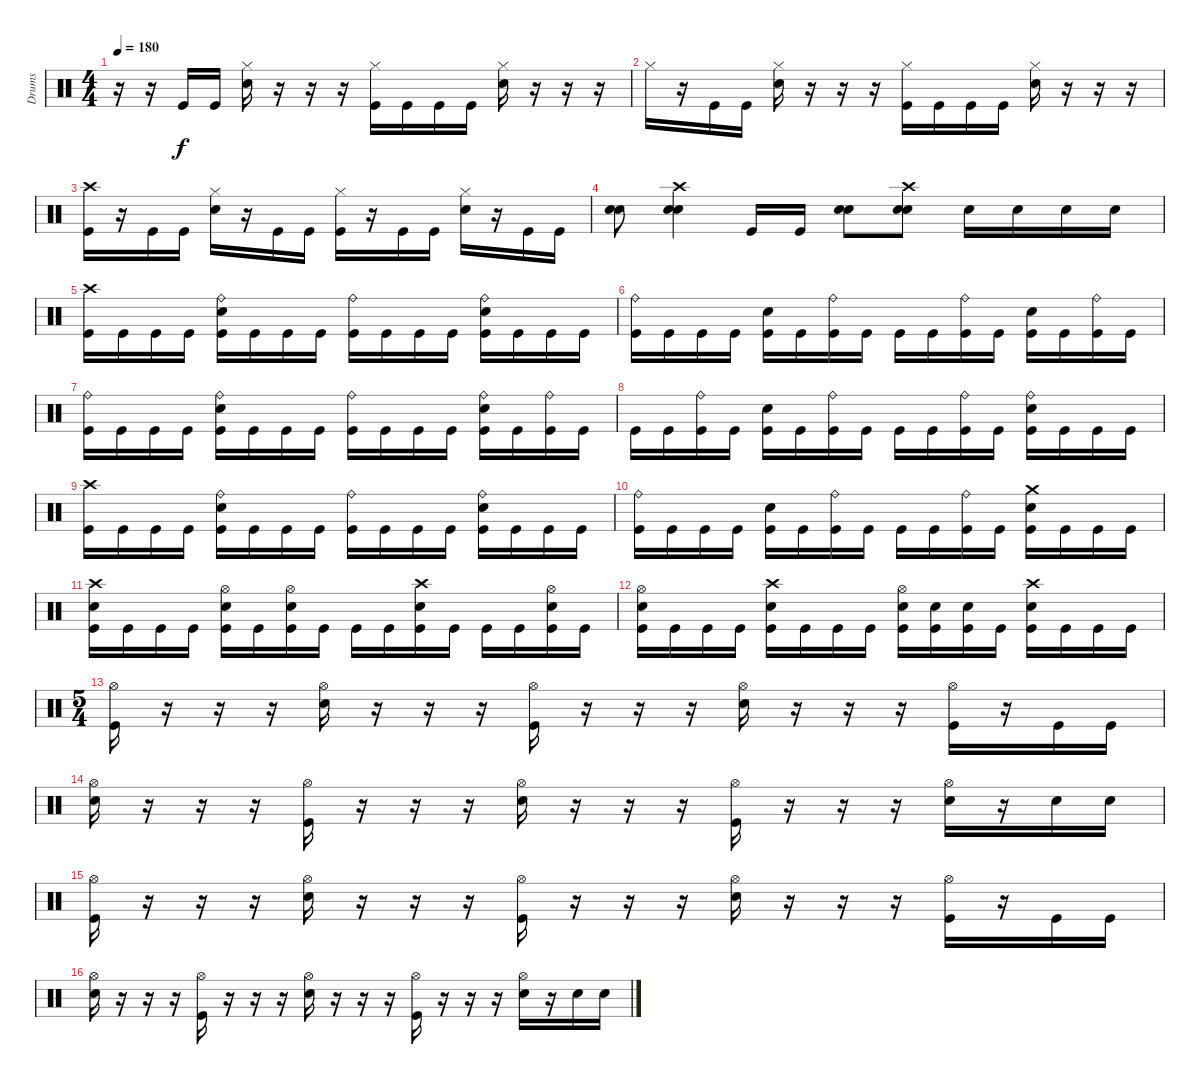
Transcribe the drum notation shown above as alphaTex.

\track ("Drums" "Drums") {instrument percussion}
\staff {score}
\articulation defaults
\ts (4 4)
\tempo 180
\clef neutral
\ks c
r.16{dy f} r.16 "Kick (hit)".16 "Kick (hit)".16 ("Hi-Hat (closed)" "Snare (hit) 2").16 r.16 r.16 r.16 ("Hi-Hat (closed)" "Kick (hit)").16 "Kick (hit)".16 "Kick (hit)".16 "Kick (hit)".16 ("Hi-Hat (closed)" "Snare (hit) 2").16 r.16 r.16 r.16 |
"Hi-Hat (closed)".16 r.16 "Kick (hit)".16 "Kick (hit)".16 ("Hi-Hat (closed)" "Snare (hit) 2").16 r.16 r.16 r.16 ("Hi-Hat (closed)" "Kick (hit)").16 "Kick (hit)".16 "Kick (hit)".16 "Kick (hit)".16 ("Hi-Hat (closed)" "Snare (hit) 2").16 r.16 r.16 r.16 |
("Crash high (hit)" "Kick (hit)").16 r.16 "Kick (hit)".16 "Kick (hit)".16 ("Hi-Hat (closed)" "Snare (hit) 2").16 r.16 "Kick (hit)".16 "Kick (hit)".16 ("Hi-Hat (closed)" "Kick (hit)").16 r.16 "Kick (hit)".16 "Kick (hit)".16 ("Hi-Hat (closed)" "Snare (hit) 2").16 r.16 "Kick (hit)".16 "Kick (hit)".16 |
("Snare (hit) 2" "Snare (hit) 2").8 ("Crash high (hit)" "Snare (hit) 2" "Snare (hit) 2").4 "Kick (hit)".16 "Kick (hit)".16 ("Snare (hit) 2" "Snare (hit) 2").8 ("Crash high (hit)" "Snare (hit) 2" "Snare (hit) 2").8 "Snare (hit) 2".16 "Snare (hit) 2".16 "Snare (hit) 2".16 "Snare (hit) 2".16 |
("Crash high (hit)" "Kick (hit)").16 "Kick (hit)".16 "Kick (hit)".16 "Kick (hit)".16 ("Ride (bell)" "Snare (hit) 2" "Kick (hit)").16 "Kick (hit)".16 "Kick (hit)".16 "Kick (hit)".16 ("Ride (bell)" "Kick (hit)").16 "Kick (hit)".16 "Kick (hit)".16 "Kick (hit)".16 ("Ride (bell)" "Snare (hit) 2" "Kick (hit)").16 "Kick (hit)".16 "Kick (hit)".16 "Kick (hit)".16 |
("Ride (bell)" "Kick (hit)").16 "Kick (hit)".16 "Kick (hit)".16 "Kick (hit)".16 ("Snare (hit) 2" "Kick (hit)").16 "Kick (hit)".16 ("Ride (bell)" "Kick (hit)").16 "Kick (hit)".16 "Kick (hit)".16 "Kick (hit)".16 ("Ride (bell)" "Kick (hit)").16 "Kick (hit)".16 ("Snare (hit) 2" "Kick (hit)").16 "Kick (hit)".16 ("Ride (bell)" "Kick (hit)").16 "Kick (hit)".16 |
("Ride (bell)" "Kick (hit)").16 "Kick (hit)".16 "Kick (hit)".16 "Kick (hit)".16 ("Ride (bell)" "Snare (hit) 2" "Kick (hit)").16 "Kick (hit)".16 "Kick (hit)".16 "Kick (hit)".16 ("Ride (bell)" "Kick (hit)").16 "Kick (hit)".16 "Kick (hit)".16 "Kick (hit)".16 ("Ride (bell)" "Snare (hit) 2" "Kick (hit)").16 "Kick (hit)".16 ("Ride (bell)" "Kick (hit)").16 "Kick (hit)".16 |
"Kick (hit)".16 "Kick (hit)".16 ("Ride (bell)" "Kick (hit)").16 "Kick (hit)".16 ("Snare (hit) 2" "Kick (hit)").16 "Kick (hit)".16 ("Ride (bell)" "Kick (hit)").16 "Kick (hit)".16 "Kick (hit)".16 "Kick (hit)".16 ("Ride (bell)" "Kick (hit)").16 "Kick (hit)".16 ("Ride (bell)" "Snare (hit) 2" "Kick (hit)").16 "Kick (hit)".16 "Kick (hit)".16 "Kick (hit)".16 |
("Crash high (hit)" "Kick (hit)").16 "Kick (hit)".16 "Kick (hit)".16 "Kick (hit)".16 ("Ride (bell)" "Snare (hit) 2" "Kick (hit)").16 "Kick (hit)".16 "Kick (hit)".16 "Kick (hit)".16 ("Ride (bell)" "Kick (hit)").16 "Kick (hit)".16 "Kick (hit)".16 "Kick (hit)".16 ("Ride (bell)" "Snare (hit) 2" "Kick (hit)").16 "Kick (hit)".16 "Kick (hit)".16 "Kick (hit)".16 |
("Ride (bell)" "Kick (hit)").16 "Kick (hit)".16 "Kick (hit)".16 "Kick (hit)".16 ("Snare (hit) 2" "Kick (hit)").16 "Kick (hit)".16 ("Ride (bell)" "Kick (hit)").16 "Kick (hit)".16 "Kick (hit)".16 "Kick (hit)".16 ("Ride (bell)" "Kick (hit)").16 "Kick (hit)".16 ("Crash medium (hit)" "Snare (hit) 2" "Kick (hit)").16 "Kick (hit)".16 "Kick (hit)".16 "Kick (hit)".16 |
("Crash high (hit)" "Snare (hit) 2" "Kick (hit)").16 "Kick (hit)".16 "Kick (hit)".16 "Kick (hit)".16 ("Hi-Hat (open)" "Snare (hit) 2" "Kick (hit)").16 "Kick (hit)".16 ("Hi-Hat (open)" "Snare (hit) 2" "Kick (hit)").16 "Kick (hit)".16 "Kick (hit)".16 "Kick (hit)".16 ("Crash high (hit)" "Snare (hit) 2" "Kick (hit)").16 "Kick (hit)".16 "Kick (hit)".16 "Kick (hit)".16 ("Hi-Hat (open)" "Snare (hit) 2" "Kick (hit)").16 "Kick (hit)".16 |
("Hi-Hat (open)" "Snare (hit) 2" "Kick (hit)").16 "Kick (hit)".16 "Kick (hit)".16 "Kick (hit)".16 ("Crash high (hit)" "Snare (hit) 2" "Kick (hit)").16 "Kick (hit)".16 "Kick (hit)".16 "Kick (hit)".16 ("Hi-Hat (open)" "Snare (hit) 2" "Kick (hit)").16 ("Snare (hit) 2" "Kick (hit)").16 ("Snare (hit) 2" "Kick (hit)").16 "Kick (hit)".16 ("Crash high (hit)" "Snare (hit) 2" "Kick (hit)").16 "Kick (hit)".16 "Kick (hit)".16 "Kick (hit)".16 |
\ts (5 4)
("Hi-Hat (open)" "Kick (hit)").16 r.16 r.16 r.16 ("Hi-Hat (open)" "Snare (hit) 2").16 r.16 r.16 r.16 ("Hi-Hat (open)" "Kick (hit)").16 r.16 r.16 r.16 ("Hi-Hat (open)" "Snare (hit) 2").16 r.16 r.16 r.16 ("Hi-Hat (open)" "Kick (hit)").16 r.16 "Kick (hit)".16 "Kick (hit)".16 |
("Hi-Hat (open)" "Snare (hit) 2").16 r.16 r.16 r.16 ("Hi-Hat (open)" "Kick (hit)").16 r.16 r.16 r.16 ("Hi-Hat (open)" "Snare (hit) 2").16 r.16 r.16 r.16 ("Hi-Hat (open)" "Kick (hit)").16 r.16 r.16 r.16 ("Hi-Hat (open)" "Snare (hit) 2").16 r.16 "Snare (hit) 2".16 "Snare (hit) 2".16 |
("Hi-Hat (open)" "Kick (hit)").16 r.16 r.16 r.16 ("Hi-Hat (open)" "Snare (hit) 2").16 r.16 r.16 r.16 ("Hi-Hat (open)" "Kick (hit)").16 r.16 r.16 r.16 ("Hi-Hat (open)" "Snare (hit) 2").16 r.16 r.16 r.16 ("Hi-Hat (open)" "Kick (hit)").16 r.16 "Kick (hit)".16 "Kick (hit)".16 |
("Hi-Hat (open)" "Snare (hit) 2").16 r.16 r.16 r.16 ("Hi-Hat (open)" "Kick (hit)").16 r.16 r.16 r.16 ("Hi-Hat (open)" "Snare (hit) 2").16 r.16 r.16 r.16 ("Hi-Hat (open)" "Kick (hit)").16 r.16 r.16 r.16 ("Hi-Hat (open)" "Snare (hit) 2").16 r.16 "Snare (hit) 2".16 "Snare (hit) 2".16
